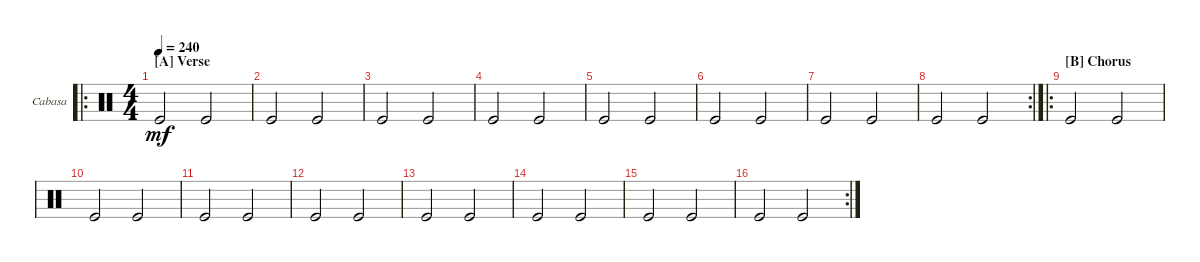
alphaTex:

\bracketExtendMode groupsimilarinstruments
\firstSystemTrackNameOrientation horizontal
\otherSystemsTrackNameOrientation horizontal
\track ("Cabasa" "Cabasa") {instrument percussion}
\staff {score}
\articulation defaults
\ro
\ts (4 4)
\section ("A" "Verse")
\tempo 240
\clef neutral
\scale
0.502222
\ks c "Kick (hit)".2{dy mf} "Kick (hit)".2
|
\scale
0.248889 "Kick (hit)".2 "Kick (hit)".2 |
\scale
0.248889 "Kick (hit)".2 "Kick (hit)".2 |
\scale
0.333333 "Kick (hit)".2 "Kick (hit)".2 |
\scale
0.333333 "Kick (hit)".2 "Kick (hit)".2 |
\scale
0.333333 "Kick (hit)".2 "Kick (hit)".2 |
\scale
0.301075 "Kick (hit)".2 "Kick (hit)".2 |
\rc 2
\scale
0.333333 "Kick (hit)".2 "Kick (hit)".2 |
\ro
\section ("B" "Chorus")
\scale
0.365591 "Kick (hit)".2 "Kick (hit)".2 |
\scale
0.333333 "Kick (hit)".2 "Kick (hit)".2 |
\scale
0.333333 "Kick (hit)".2 "Kick (hit)".2 |
\scale
0.333333 "Kick (hit)".2 "Kick (hit)".2 |
\scale
0.333333 "Kick (hit)".2 "Kick (hit)".2 |
\scale
0.333333 "Kick (hit)".2 "Kick (hit)".2 |
\scale
0.333333 "Kick (hit)".2 "Kick (hit)".2 |
\rc 2
\scale
0.333333 "Kick (hit)".2 "Kick (hit)".2
